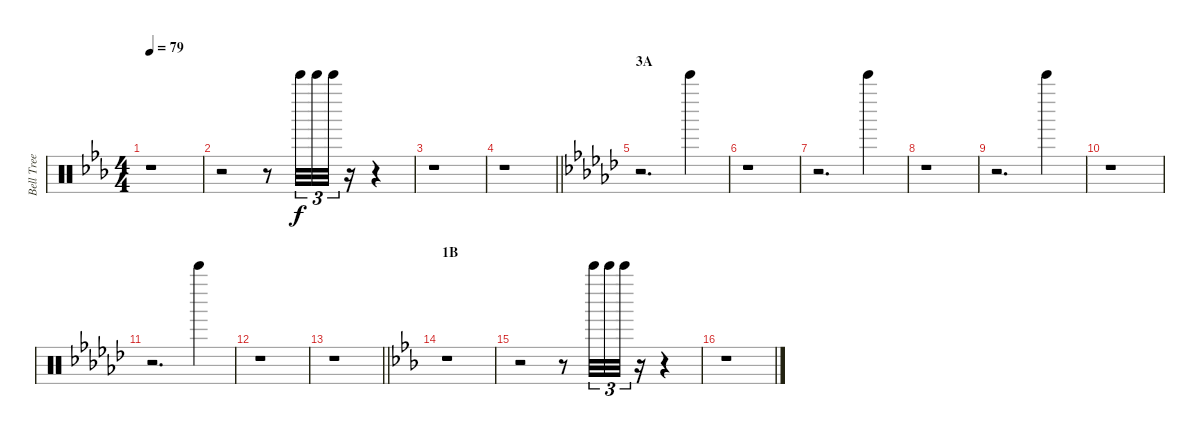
\track ("Bell Tree" "Bell Tree") {instrument percussion}
\staff {score}
\articulation defaults
\ts (4 4)
\tempo 79
\clef neutral
\ks eb
r.1{dy f} |
r.2 r.8 "Bell Tree (hit)".32{tu (3 2)} "Bell Tree (hit)".32{tu (3 2)} "Bell Tree (hit)".32{tu (3 2)} r.16 r.4 |
r.1 |
\barLineRight lightlight
r.1 |
\section ("" "3A")
\ks gb
r.2{d} "Bell Tree (hit)".4 |
r.1 |
r.2{d} "Bell Tree (hit)".4 |
r.1 |
r.2{d} "Bell Tree (hit)".4 |
r.1 |
r.2{d} "Bell Tree (hit)".4 |
r.1 |
\barLineRight lightlight
r.1 |
\section ("" "1B")
\ks eb
r.1 |
r.2 r.8 "Bell Tree (hit)".32{tu (3 2)} "Bell Tree (hit)".32{tu (3 2)} "Bell Tree (hit)".32{tu (3 2)} r.16 r.4 |
r.1
